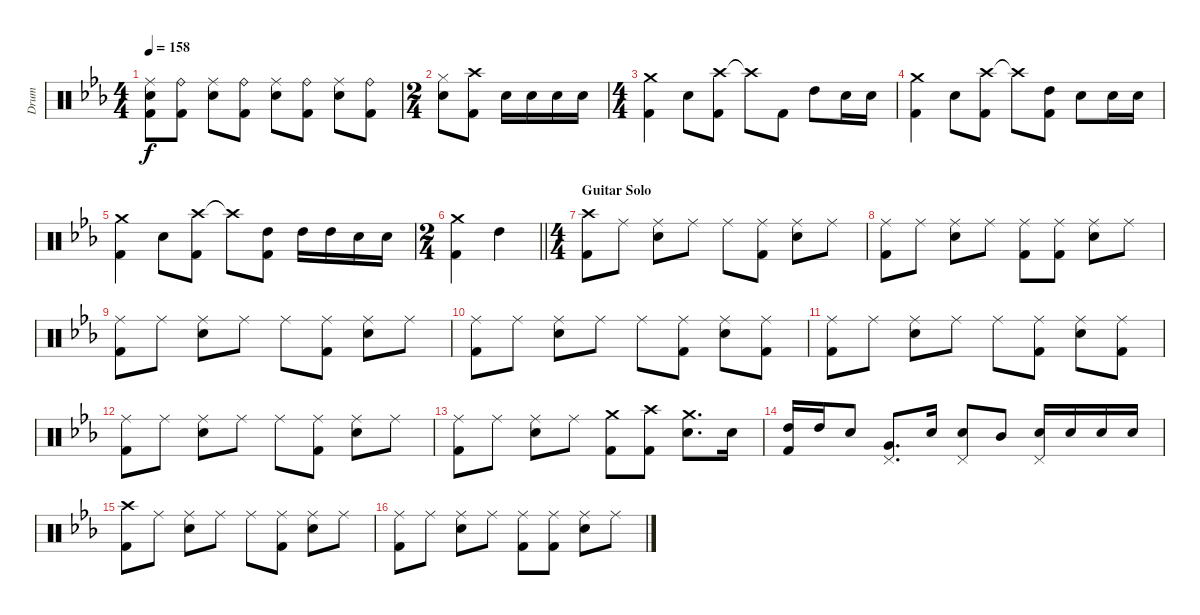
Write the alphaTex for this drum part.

\track ("Drum" "Drum") {instrument percussion}
\staff {score}
\articulation defaults
\ts (4 4)
\tempo 158
\clef neutral
\ks eb
("Ride (middle)" "Electric Snare (hit)" "Kick (hit) 2").8{dy f} ("Ride (bell)" "Kick (hit) 2").8 ("Ride (middle)" "Electric Snare (hit)").8 ("Ride (bell)" "Kick (hit) 2").8 ("Ride (middle)" "Electric Snare (hit)").8 ("Ride (bell)" "Kick (hit) 2").8 ("Ride (middle)" "Electric Snare (hit)").8 ("Ride (bell)" "Kick (hit) 2").8 |
\ts (2 4)
("Hi-Hat (closed)" "Electric Snare (hit)").8 ("Crash high (hit)" "Kick (hit) 2").8 "Electric Snare (hit)".16 "Electric Snare (hit)".16 "Electric Snare (hit)".16 "Electric Snare (hit)".16 |
\ts (4 4)
("Crash medium (hit)" "Kick (hit) 2").4 "Electric Snare (hit)".8 ("Crash high (hit)" "Kick (hit) 2").8 "Crash high (hit)"{t}.8 "Kick (hit) 2".8 "High Tom (hit)".8 "Electric Snare (hit)".16 "Electric Snare (hit)".16 |
("Crash medium (hit)" "Kick (hit) 2").4 "Electric Snare (hit)".8 ("Crash high (hit)" "Kick (hit) 2").8 "Crash high (hit)"{t}.8 ("High Tom (hit)" "Kick (hit) 2").8 "Electric Snare (hit)".8 "Electric Snare (hit)".16 "Electric Snare (hit)".16 |
("Crash medium (hit)" "Kick (hit) 2").4 "Electric Snare (hit)".8 ("Crash high (hit)" "Kick (hit) 2").8 "Crash high (hit)"{t}.8 ("High Tom (hit)" "Kick (hit) 2").8 "High Tom (hit)".16 "High Tom (hit)".16 "Electric Snare (hit)".16 "Electric Snare (hit)".16 |
\ts (2 4)
\barLineRight lightlight
("Crash medium (hit)" "Kick (hit) 2").4 "High Tom (hit)".4 |
\ts (4 4)
\section ("" "Guitar Solo")
("Crash high (hit)" "Kick (hit) 2").8 "Ride (middle)".8 ("Ride (middle)" "Electric Snare (hit)").8 "Ride (middle)".8 "Ride (middle)".8 ("Ride (middle)" "Kick (hit) 2").8 ("Ride (middle)" "Electric Snare (hit)").8 "Ride (middle)".8 |
("Ride (middle)" "Kick (hit) 2").8 "Ride (middle)".8 ("Ride (middle)" "Electric Snare (hit)").8 "Ride (middle)".8 ("Ride (middle)" "Kick (hit) 2").8 ("Ride (middle)" "Kick (hit) 2").8 ("Ride (middle)" "Electric Snare (hit)").8 "Ride (middle)".8 |
("Ride (middle)" "Kick (hit) 2").8 "Ride (middle)".8 ("Ride (middle)" "Electric Snare (hit)").8 "Ride (middle)".8 "Ride (middle)".8 ("Ride (middle)" "Kick (hit) 2").8 ("Ride (middle)" "Electric Snare (hit)").8 "Ride (middle)".8 |
("Ride (middle)" "Kick (hit) 2").8 "Ride (middle)".8 ("Ride (middle)" "Electric Snare (hit)").8 "Ride (middle)".8 "Ride (middle)".8 ("Ride (middle)" "Kick (hit) 2").8 ("Ride (middle)" "Electric Snare (hit)").8 ("Ride (middle)" "Kick (hit) 2").8 |
("Ride (middle)" "Kick (hit) 2").8 "Ride (middle)".8 ("Ride (middle)" "Electric Snare (hit)").8 "Ride (middle)".8 "Ride (middle)".8 ("Ride (middle)" "Kick (hit) 2").8 ("Ride (middle)" "Electric Snare (hit)").8 ("Ride (middle)" "Kick (hit) 2").8 |
("Ride (middle)" "Kick (hit) 2").8 "Ride (middle)".8 ("Ride (middle)" "Electric Snare (hit)").8 "Ride (middle)".8 "Ride (middle)".8 ("Ride (middle)" "Kick (hit) 2").8 ("Ride (middle)" "Electric Snare (hit)").8 "Ride (middle)".8 |
("Ride (middle)" "Kick (hit) 2").8 "Ride (middle)".8 ("Ride (middle)" "Electric Snare (hit)").8 "Ride (middle)".8 ("Crash medium (hit)" "Kick (hit) 2").8 ("Crash high (hit)" "Kick (hit) 2").8 ("Crash medium (hit)" "Electric Snare (hit)").8{d} "Electric Snare (hit)".16 |
("High Tom (hit)" "Kick (hit) 2").16 "High Tom (hit)".16 "Electric Snare (hit)".8 ("Very Low Tom (hit)" "Pedal Hi-Hat (hit)").8{d} "Electric Snare (hit)".16 ("Electric Snare (hit)" "Pedal Hi-Hat (hit)").8 "Mid Tom (hit)".8 ("Electric Snare (hit)" "Pedal Hi-Hat (hit)").16 "Electric Snare (hit)".16 "Electric Snare (hit)".16 "Electric Snare (hit)".16 |
("Crash high (hit)" "Kick (hit) 2").8 "Ride (middle)".8 ("Ride (middle)" "Electric Snare (hit)").8 "Ride (middle)".8 "Ride (middle)".8 ("Ride (middle)" "Kick (hit) 2").8 ("Ride (middle)" "Electric Snare (hit)").8 "Ride (middle)".8 |
("Ride (middle)" "Kick (hit) 2").8 "Ride (middle)".8 ("Ride (middle)" "Electric Snare (hit)").8 "Ride (middle)".8 ("Ride (middle)" "Kick (hit) 2").8 ("Ride (middle)" "Kick (hit) 2").8 ("Ride (middle)" "Electric Snare (hit)").8 "Ride (middle)".8
